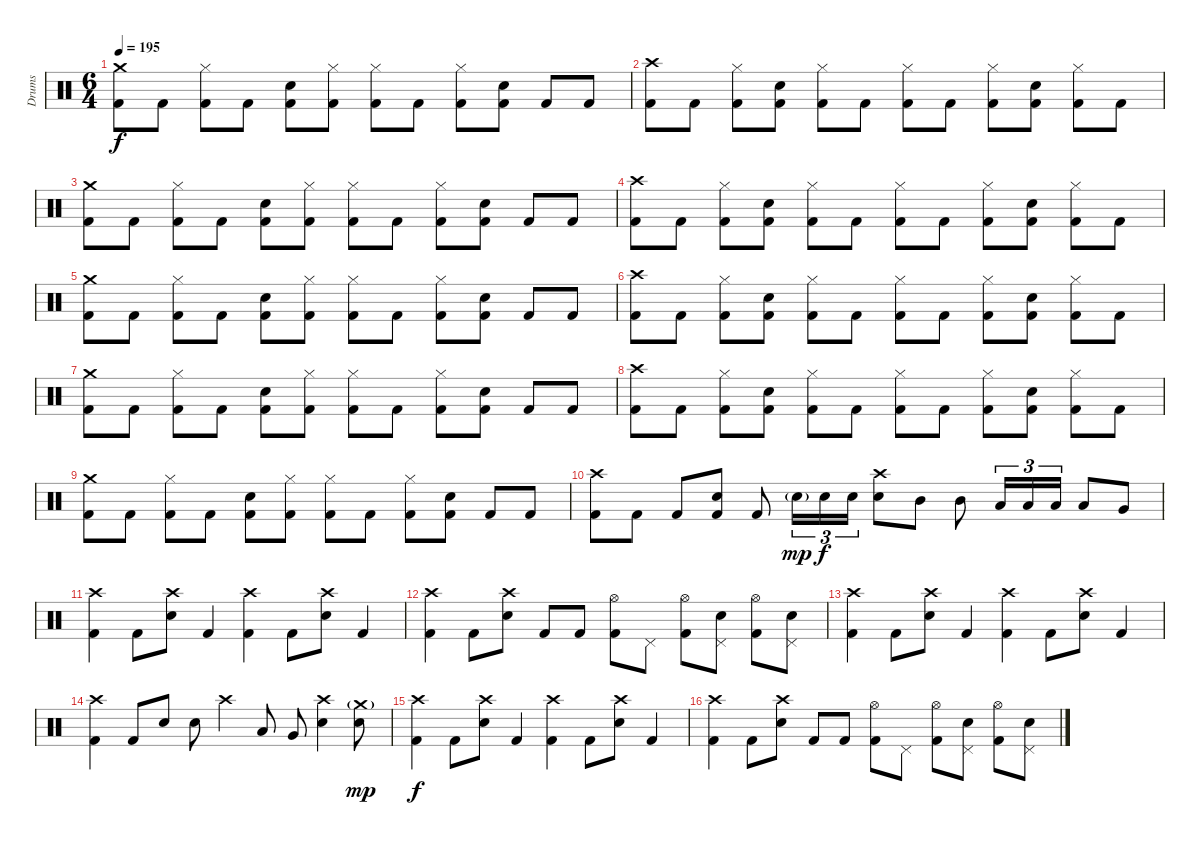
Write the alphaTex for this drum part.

\track ("Drums" "Drums") {instrument percussion}
\staff {score}
\articulation defaults
\ts (6 4)
\tempo 195
\clef neutral
\ks c
("Crash medium (hit)" "Kick (hit) 2").8{dy f} "Kick (hit) 2".8 ("Hi-Hat (closed)" "Kick (hit) 2").8 "Kick (hit) 2".8 ("Electric Snare (hit)" "Kick (hit) 2").8 ("Hi-Hat (closed)" "Kick (hit) 2").8 ("Hi-Hat (closed)" "Kick (hit) 2").8 "Kick (hit) 2".8 ("Hi-Hat (closed)" "Kick (hit) 2").8 ("Electric Snare (hit)" "Kick (hit) 2").8 "Kick (hit) 2".8 "Kick (hit) 2".8 |
("Crash high (hit)" "Kick (hit) 2").8 "Kick (hit) 2".8 ("Hi-Hat (closed)" "Kick (hit) 2").8 ("Electric Snare (hit)" "Kick (hit) 2").8 ("Hi-Hat (closed)" "Kick (hit) 2").8 "Kick (hit) 2".8 ("Hi-Hat (closed)" "Kick (hit) 2").8 "Kick (hit) 2".8 ("Hi-Hat (closed)" "Kick (hit) 2").8 ("Electric Snare (hit)" "Kick (hit) 2").8 ("Hi-Hat (closed)" "Kick (hit) 2").8 "Kick (hit) 2".8 |
("Crash medium (hit)" "Kick (hit) 2").8 "Kick (hit) 2".8 ("Hi-Hat (closed)" "Kick (hit) 2").8 "Kick (hit) 2".8 ("Electric Snare (hit)" "Kick (hit) 2").8 ("Hi-Hat (closed)" "Kick (hit) 2").8 ("Hi-Hat (closed)" "Kick (hit) 2").8 "Kick (hit) 2".8 ("Hi-Hat (closed)" "Kick (hit) 2").8 ("Electric Snare (hit)" "Kick (hit) 2").8 "Kick (hit) 2".8 "Kick (hit) 2".8 |
("Crash high (hit)" "Kick (hit) 2").8 "Kick (hit) 2".8 ("Hi-Hat (closed)" "Kick (hit) 2").8 ("Electric Snare (hit)" "Kick (hit) 2").8 ("Hi-Hat (closed)" "Kick (hit) 2").8 "Kick (hit) 2".8 ("Hi-Hat (closed)" "Kick (hit) 2").8 "Kick (hit) 2".8 ("Hi-Hat (closed)" "Kick (hit) 2").8 ("Electric Snare (hit)" "Kick (hit) 2").8 ("Hi-Hat (closed)" "Kick (hit) 2").8 "Kick (hit) 2".8 |
("Crash medium (hit)" "Kick (hit) 2").8 "Kick (hit) 2".8 ("Hi-Hat (closed)" "Kick (hit) 2").8 "Kick (hit) 2".8 ("Electric Snare (hit)" "Kick (hit) 2").8 ("Hi-Hat (closed)" "Kick (hit) 2").8 ("Hi-Hat (closed)" "Kick (hit) 2").8 "Kick (hit) 2".8 ("Hi-Hat (closed)" "Kick (hit) 2").8 ("Electric Snare (hit)" "Kick (hit) 2").8 "Kick (hit) 2".8 "Kick (hit) 2".8 |
("Crash high (hit)" "Kick (hit) 2").8 "Kick (hit) 2".8 ("Hi-Hat (closed)" "Kick (hit) 2").8 ("Electric Snare (hit)" "Kick (hit) 2").8 ("Hi-Hat (closed)" "Kick (hit) 2").8 "Kick (hit) 2".8 ("Hi-Hat (closed)" "Kick (hit) 2").8 "Kick (hit) 2".8 ("Hi-Hat (closed)" "Kick (hit) 2").8 ("Electric Snare (hit)" "Kick (hit) 2").8 ("Hi-Hat (closed)" "Kick (hit) 2").8 "Kick (hit) 2".8 |
("Crash medium (hit)" "Kick (hit) 2").8 "Kick (hit) 2".8 ("Hi-Hat (closed)" "Kick (hit) 2").8 "Kick (hit) 2".8 ("Electric Snare (hit)" "Kick (hit) 2").8 ("Hi-Hat (closed)" "Kick (hit) 2").8 ("Hi-Hat (closed)" "Kick (hit) 2").8 "Kick (hit) 2".8 ("Hi-Hat (closed)" "Kick (hit) 2").8 ("Electric Snare (hit)" "Kick (hit) 2").8 "Kick (hit) 2".8 "Kick (hit) 2".8 |
("Crash high (hit)" "Kick (hit) 2").8 "Kick (hit) 2".8 ("Hi-Hat (closed)" "Kick (hit) 2").8 ("Electric Snare (hit)" "Kick (hit) 2").8 ("Hi-Hat (closed)" "Kick (hit) 2").8 "Kick (hit) 2".8 ("Hi-Hat (closed)" "Kick (hit) 2").8 "Kick (hit) 2".8 ("Hi-Hat (closed)" "Kick (hit) 2").8 ("Electric Snare (hit)" "Kick (hit) 2").8 ("Hi-Hat (closed)" "Kick (hit) 2").8 "Kick (hit) 2".8 |
("Crash medium (hit)" "Kick (hit) 2").8 "Kick (hit) 2".8 ("Hi-Hat (closed)" "Kick (hit) 2").8 "Kick (hit) 2".8 ("Electric Snare (hit)" "Kick (hit) 2").8 ("Hi-Hat (closed)" "Kick (hit) 2").8 ("Hi-Hat (closed)" "Kick (hit) 2").8 "Kick (hit) 2".8 ("Hi-Hat (closed)" "Kick (hit) 2").8 ("Electric Snare (hit)" "Kick (hit) 2").8 "Kick (hit) 2".8 "Kick (hit) 2".8 |
("Crash high (hit)" "Kick (hit) 2").8 "Kick (hit) 2".8 "Kick (hit) 2".8 ("Electric Snare (hit)" "Kick (hit) 2").8 "Kick (hit) 2".8 "Electric Snare (hit)"{g}.16{tu (3 2) dy mp} "Electric Snare (hit)".16{tu (3 2) dy f} "Electric Snare (hit)".16{tu (3 2)} ("Crash high (hit)" "Electric Snare (hit)").8 "Mid Tom (hit)".8 "Mid Tom (hit)".8 "Low Tom (hit)".16{tu (3 2)} "Low Tom (hit)".16{tu (3 2)} "Low Tom (hit)".16{tu (3 2)} "Low Tom (hit)".8 "Very Low Tom (hit)".8 |
("Crash high (hit)" "Kick (hit) 2").4 "Kick (hit) 2".8 ("Crash high (hit)" "Electric Snare (hit)").8 "Kick (hit) 2".4 ("Crash high (hit)" "Kick (hit) 2").4 "Kick (hit) 2".8 ("Crash high (hit)" "Electric Snare (hit)").8 "Kick (hit) 2".4 |
("Crash high (hit)" "Kick (hit) 2").4 "Kick (hit) 2".8 ("Crash high (hit)" "Electric Snare (hit)").8 "Kick (hit) 2".8 "Kick (hit) 2".8 ("Hi-Hat (open)" "Kick (hit) 2").8 "Pedal Hi-Hat (hit)".8 ("Hi-Hat (open)" "Kick (hit) 2").8 ("Pedal Hi-Hat (hit)" "Electric Snare (hit)").8 ("Hi-Hat (open)" "Kick (hit) 2").8 ("Pedal Hi-Hat (hit)" "Electric Snare (hit)").8 |
("Crash high (hit)" "Kick (hit) 2").4 "Kick (hit) 2".8 ("Crash high (hit)" "Electric Snare (hit)").8 "Kick (hit) 2".4 ("Crash high (hit)" "Kick (hit) 2").4 "Kick (hit) 2".8 ("Crash high (hit)" "Electric Snare (hit)").8 "Kick (hit) 2".4 |
("Crash high (hit)" "Kick (hit) 2").4 "Kick (hit) 2".8 "Electric Snare (hit)".8 "Electric Snare (hit)".8 "Crash high (hit)".4 "Low Tom (hit)".8 "Very Low Tom (hit)".8 ("Crash high (hit)" "Electric Snare (hit)").4 ("Crash medium (hit)"{g} "Electric Snare (hit)").8{dy mp} |
("Crash high (hit)" "Kick (hit) 2").4{dy f} "Kick (hit) 2".8 ("Crash high (hit)" "Electric Snare (hit)").8 "Kick (hit) 2".4 ("Crash high (hit)" "Kick (hit) 2").4 "Kick (hit) 2".8 ("Crash high (hit)" "Electric Snare (hit)").8 "Kick (hit) 2".4 |
("Crash high (hit)" "Kick (hit) 2").4 "Kick (hit) 2".8 ("Crash high (hit)" "Electric Snare (hit)").8 "Kick (hit) 2".8 "Kick (hit) 2".8 ("Hi-Hat (open)" "Kick (hit) 2").8 "Pedal Hi-Hat (hit)".8 ("Hi-Hat (open)" "Kick (hit) 2").8 ("Pedal Hi-Hat (hit)" "Electric Snare (hit)").8 ("Hi-Hat (open)" "Kick (hit) 2").8 ("Pedal Hi-Hat (hit)" "Electric Snare (hit)").8
